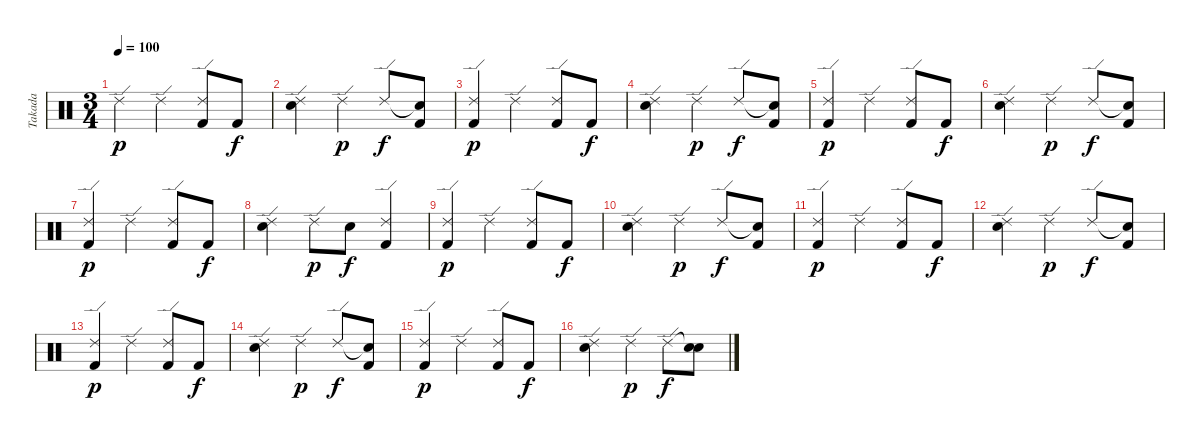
\track ("Takada" "Takada") {instrument percussion}
\staff {score}
\articulation defaults
\ts (3 4)
\tempo 100
\clef neutral
\ks c "Ride (edge) 2".4{dy p} "Ride (edge) 2".4
("Ride (edge) 2" "Kick (hit) 2").8 "Kick (hit) 2".8{dy f} |
("Ride (edge) 2" "Electric Snare (hit)").4 "Ride (edge) 2".4{dy p} "Ride (edge) 2".8{dy f} ("Snare (hit)"{t} "Kick (hit) 2").8 |
("Ride (edge) 2" "Kick (hit) 2").4{dy p} "Ride (edge) 2".4 ("Ride (edge) 2" "Kick (hit) 2").8 "Kick (hit) 2".8{dy f} |
("Ride (edge) 2" "Electric Snare (hit)").4 "Ride (edge) 2".4{dy p} "Ride (edge) 2".8{dy f} ("Snare (hit)"{t} "Kick (hit) 2").8 |
("Ride (edge) 2" "Kick (hit) 2").4{dy p} "Ride (edge) 2".4 ("Ride (edge) 2" "Kick (hit) 2").8 "Kick (hit) 2".8{dy f} |
("Ride (edge) 2" "Electric Snare (hit)").4 "Ride (edge) 2".4{dy p} "Ride (edge) 2".8{dy f} ("Snare (hit)"{t} "Kick (hit) 2").8 |
("Ride (edge) 2" "Kick (hit) 2").4{dy p} "Ride (edge) 2".4 ("Ride (edge) 2" "Kick (hit) 2").8 "Kick (hit) 2".8{dy f} |
("Ride (edge) 2" "Electric Snare (hit)").4 "Ride (edge) 2".8{dy p} "Electric Snare (hit)".8{dy f} ("Ride (edge) 2" "Kick (hit) 2").4 |
("Ride (edge) 2" "Kick (hit) 2").4{dy p} "Ride (edge) 2".4 ("Ride (edge) 2" "Kick (hit) 2").8 "Kick (hit) 2".8{dy f} |
("Ride (edge) 2" "Electric Snare (hit)").4 "Ride (edge) 2".4{dy p} "Ride (edge) 2".8{dy f} ("Snare (hit)"{t} "Kick (hit) 2").8 |
("Ride (edge) 2" "Kick (hit) 2").4{dy p} "Ride (edge) 2".4 ("Ride (edge) 2" "Kick (hit) 2").8 "Kick (hit) 2".8{dy f} |
("Ride (edge) 2" "Electric Snare (hit)").4 "Ride (edge) 2".4{dy p} "Ride (edge) 2".8{dy f} ("Snare (hit)"{t} "Kick (hit) 2").8 |
("Ride (edge) 2" "Kick (hit) 2").4{dy p} "Ride (edge) 2".4 ("Ride (edge) 2" "Kick (hit) 2").8 "Kick (hit) 2".8{dy f} |
("Ride (edge) 2" "Electric Snare (hit)").4 "Ride (edge) 2".4{dy p} "Ride (edge) 2".8{dy f} ("Snare (hit)"{t} "Kick (hit) 2").8 |
("Ride (edge) 2" "Kick (hit) 2").4{dy p} "Ride (edge) 2".4 ("Ride (edge) 2" "Kick (hit) 2").8 "Kick (hit) 2".8{dy f} |
("Ride (edge) 2" "Electric Snare (hit)").4 "Ride (edge) 2".4{dy p} "Ride (edge) 2".8{dy f} ("Snare (hit)"{t} "Electric Snare (hit)").8
